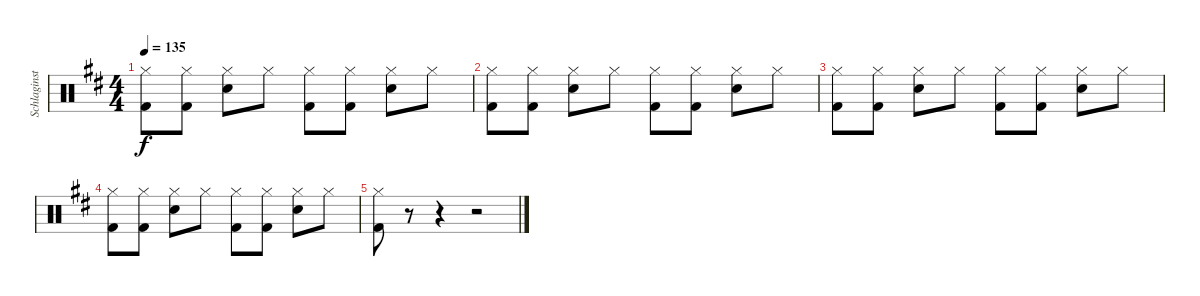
\track ("Schlaginstrumente - Auswahl" "Schlaginst") {instrument percussion}
\staff {score}
\articulation defaults
\ts (4 4)
\tempo 135
\clef neutral
\ks d
("Hi-Hat (closed)" "Kick (hit) 2").8{dy f} ("Hi-Hat (closed)" "Kick (hit) 2").8 ("Hi-Hat (closed)" "Snare (hit) 2").8 "Hi-Hat (closed)".8 ("Hi-Hat (closed)" "Kick (hit) 2").8 ("Hi-Hat (closed)" "Kick (hit) 2").8 ("Hi-Hat (closed)" "Snare (hit) 2").8 "Hi-Hat (closed)".8 |
("Hi-Hat (closed)" "Kick (hit) 2").8 ("Hi-Hat (closed)" "Kick (hit) 2").8 ("Hi-Hat (closed)" "Snare (hit) 2").8 "Hi-Hat (closed)".8 ("Hi-Hat (closed)" "Kick (hit) 2").8 ("Hi-Hat (closed)" "Kick (hit) 2").8 ("Hi-Hat (closed)" "Snare (hit) 2").8 "Hi-Hat (closed)".8 |
("Hi-Hat (closed)" "Kick (hit) 2").8 ("Hi-Hat (closed)" "Kick (hit) 2").8 ("Hi-Hat (closed)" "Snare (hit) 2").8 "Hi-Hat (closed)".8 ("Hi-Hat (closed)" "Kick (hit) 2").8 ("Hi-Hat (closed)" "Kick (hit) 2").8 ("Hi-Hat (closed)" "Snare (hit) 2").8 "Hi-Hat (closed)".8 |
("Hi-Hat (closed)" "Kick (hit) 2").8 ("Hi-Hat (closed)" "Kick (hit) 2").8 ("Hi-Hat (closed)" "Snare (hit) 2").8 "Hi-Hat (closed)".8 ("Hi-Hat (closed)" "Kick (hit) 2").8 ("Hi-Hat (closed)" "Kick (hit) 2").8 ("Hi-Hat (closed)" "Snare (hit) 2").8 "Hi-Hat (closed)".8 |
("Hi-Hat (closed)" "Kick (hit) 2").8 r.8 r.4 r.2
